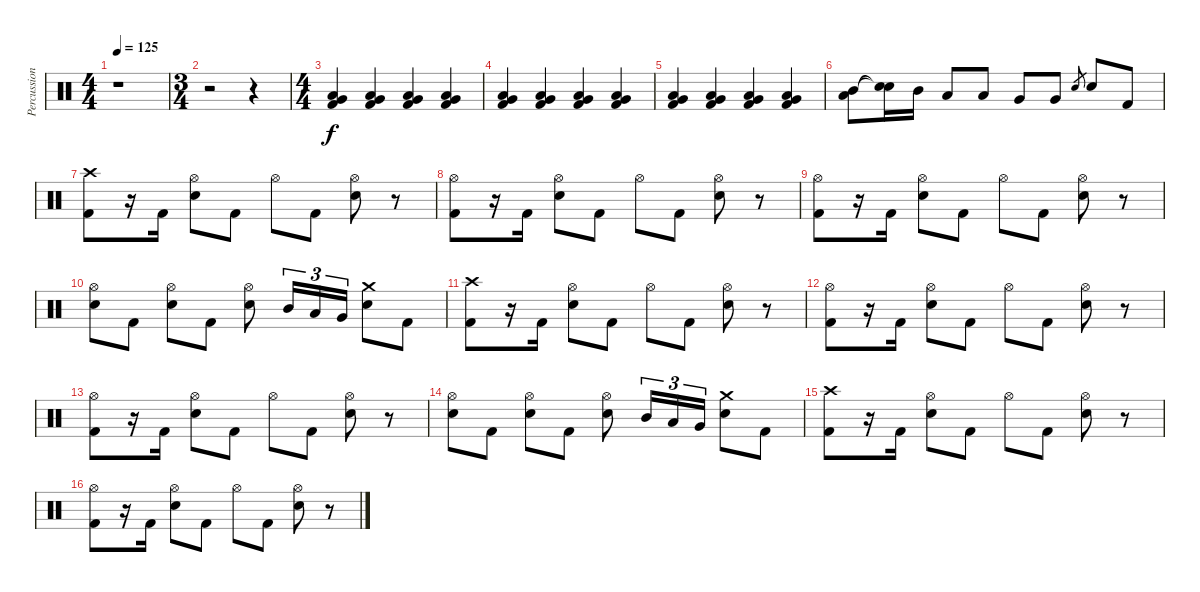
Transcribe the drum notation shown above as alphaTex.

\track ("Percussion" "Percussion") {instrument percussion}
\staff {score}
\articulation defaults
\ts (4 4)
\tempo 125
\clef neutral
\ks c
r.1{dy f} |
\ts (3 4)
r.2 r.4 |
\ts (4 4)
("Low Tom (hit)" "Very Low Tom (hit)" "Kick (hit) 2").4 ("Low Tom (hit)" "Very Low Tom (hit)" "Kick (hit) 2").4 ("Low Tom (hit)" "Very Low Tom (hit)" "Kick (hit) 2").4 ("Low Tom (hit)" "Very Low Tom (hit)" "Kick (hit) 2").4 |
("Low Tom (hit)" "Very Low Tom (hit)" "Kick (hit) 2").4 ("Low Tom (hit)" "Very Low Tom (hit)" "Kick (hit) 2").4 ("Low Tom (hit)" "Very Low Tom (hit)" "Kick (hit) 2").4 ("Low Tom (hit)" "Very Low Tom (hit)" "Kick (hit) 2").4 |
("Low Tom (hit)" "Very Low Tom (hit)" "Kick (hit) 2").4 ("Low Tom (hit)" "Very Low Tom (hit)" "Kick (hit) 2").4 ("Low Tom (hit)" "Very Low Tom (hit)" "Kick (hit) 2").4 ("Low Tom (hit)" "Very Low Tom (hit)" "Kick (hit) 2").4 |
("Low Tom (hit)" "Mid Tom (hit)").8 ("Snare (hit)"{t} "Snare (hit)"{t}).16 "Mid Tom (hit)".16 "Low Tom (hit)".8 "Low Tom (hit)".8 "Very Low Tom (hit)".8 "Very Low Tom (hit)".8 "Snare (hit) 2".8{gr} "Snare (hit) 2".8 "Kick (hit) 2".8 |
("Crash high (hit)" "Kick (hit) 2").8 r.16 "Kick (hit) 2".16 ("Hi-Hat (open)" "Snare (hit) 2").8 "Kick (hit) 2".8 "Hi-Hat (open)".8 "Kick (hit) 2".8 ("Hi-Hat (open)" "Snare (hit) 2").8 r.8 |
("Hi-Hat (open)" "Kick (hit) 2").8 r.16 "Kick (hit) 2".16 ("Hi-Hat (open)" "Snare (hit) 2").8 "Kick (hit) 2".8 "Hi-Hat (open)".8 "Kick (hit) 2".8 ("Hi-Hat (open)" "Snare (hit) 2").8 r.8 |
("Hi-Hat (open)" "Kick (hit) 2").8 r.16 "Kick (hit) 2".16 ("Hi-Hat (open)" "Snare (hit) 2").8 "Kick (hit) 2".8 "Hi-Hat (open)".8 "Kick (hit) 2".8 ("Hi-Hat (open)" "Snare (hit) 2").8 r.8 |
("Hi-Hat (open)" "Snare (hit) 2").8 "Kick (hit) 2".8 ("Hi-Hat (open)" "Snare (hit) 2").8 "Kick (hit) 2".8 ("Hi-Hat (open)" "Snare (hit) 2").8 "Mid Tom (hit)".16{tu (3 2)} "Low Tom (hit)".16{tu (3 2)} "Very Low Tom (hit)".16{tu (3 2)} ("Crash medium (hit)" "Snare (hit) 2").8 "Kick (hit) 2".8 |
("Crash high (hit)" "Kick (hit) 2").8 r.16 "Kick (hit) 2".16 ("Hi-Hat (open)" "Snare (hit) 2").8 "Kick (hit) 2".8 "Hi-Hat (open)".8 "Kick (hit) 2".8 ("Hi-Hat (open)" "Snare (hit) 2").8 r.8 |
("Hi-Hat (open)" "Kick (hit) 2").8 r.16 "Kick (hit) 2".16 ("Hi-Hat (open)" "Snare (hit) 2").8 "Kick (hit) 2".8 "Hi-Hat (open)".8 "Kick (hit) 2".8 ("Hi-Hat (open)" "Snare (hit) 2").8 r.8 |
("Hi-Hat (open)" "Kick (hit) 2").8 r.16 "Kick (hit) 2".16 ("Hi-Hat (open)" "Snare (hit) 2").8 "Kick (hit) 2".8 "Hi-Hat (open)".8 "Kick (hit) 2".8 ("Hi-Hat (open)" "Snare (hit) 2").8 r.8 |
("Hi-Hat (open)" "Snare (hit) 2").8 "Kick (hit) 2".8 ("Hi-Hat (open)" "Snare (hit) 2").8 "Kick (hit) 2".8 ("Hi-Hat (open)" "Snare (hit) 2").8 "Mid Tom (hit)".16{tu (3 2)} "Low Tom (hit)".16{tu (3 2)} "Very Low Tom (hit)".16{tu (3 2)} ("Crash medium (hit)" "Snare (hit) 2").8 "Kick (hit) 2".8 |
("Crash high (hit)" "Kick (hit) 2").8 r.16 "Kick (hit) 2".16 ("Hi-Hat (open)" "Snare (hit) 2").8 "Kick (hit) 2".8 "Hi-Hat (open)".8 "Kick (hit) 2".8 ("Hi-Hat (open)" "Snare (hit) 2").8 r.8 |
("Hi-Hat (open)" "Kick (hit) 2").8 r.16 "Kick (hit) 2".16 ("Hi-Hat (open)" "Snare (hit) 2").8 "Kick (hit) 2".8 "Hi-Hat (open)".8 "Kick (hit) 2".8 ("Hi-Hat (open)" "Snare (hit) 2").8 r.8
